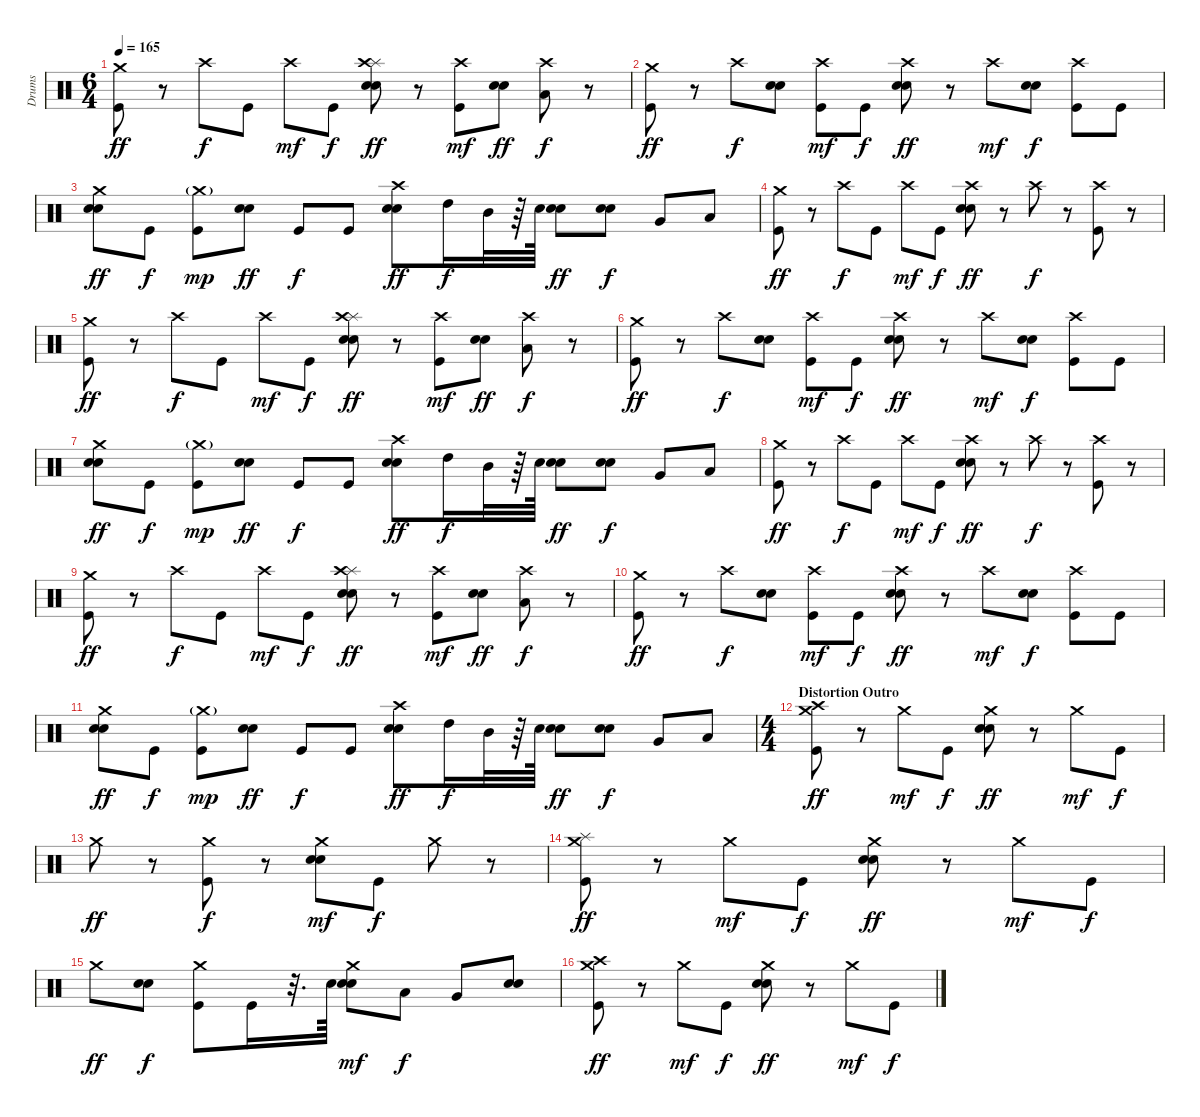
\track ("Drums" "Drums") {instrument percussion}
\staff {score}
\articulation defaults
\ts (6 4)
\tempo 165
\clef neutral
\ks c
("Kick (hit)" "Crash medium (hit)").8{dy ff} r.8 "Crash high (hit)".8{dy f} "Kick (hit)".8 "Crash high (hit)".8{dy mf} "Kick (hit)".8{dy f} ("Electric Snare (hit)" "Electric Snare (hit)" "Splash (hit)" "Crash high (hit)").8{dy ff} r.8 ("Kick (hit)" "Crash high (hit)").8{dy mf} ("Electric Snare (hit)" "Electric Snare (hit)").8{dy ff} ("Low Floor Tom (hit)" "Crash high (hit)").8{dy f} r.8 |
("Kick (hit)" "Crash medium (hit)").8{dy ff} r.8 "Crash high (hit)".8{dy f} ("Electric Snare (hit)" "Electric Snare (hit)").8 ("Kick (hit)" "Crash high (hit)").8{dy mf} "Kick (hit)".8{dy f} ("Electric Snare (hit)" "Electric Snare (hit)" "Crash high (hit)").8{dy ff} r.8 "Crash high (hit)".8{dy mf} ("Electric Snare (hit)" "Electric Snare (hit)").8{dy f} ("Kick (hit)" "Crash high (hit)").8 "Kick (hit)".8 |
("Electric Snare (hit)" "Electric Snare (hit)" "Crash medium (hit)").8{dy ff} "Kick (hit)".8{dy f} ("Kick (hit)" "Crash medium (hit)"{g}).8{dy mp} ("Electric Snare (hit)" "Electric Snare (hit)").8{dy ff} "Kick (hit)".8{dy f} "Kick (hit)".8 ("Electric Snare (hit)" "Electric Snare (hit)" "Crash high (hit)").8{dy ff} "High Tom (hit)".16{dy f} "Mid Tom (hit)".32 r.64 "Electric Snare (hit)".64 ("Electric Snare (hit)" "Electric Snare (hit)").8{dy ff} ("Electric Snare (hit)" "Electric Snare (hit)").8{dy f} "Very Low Tom (hit)".8 "Low Floor Tom (hit)".8 |
("Kick (hit)" "Crash medium (hit)").8{dy ff} r.8 "Crash high (hit)".8{dy f} "Kick (hit)".8 "Crash high (hit)".8{dy mf} "Kick (hit)".8{dy f} ("Electric Snare (hit)" "Electric Snare (hit)" "Crash high (hit)").8{dy ff} r.8 "Crash high (hit)".8{dy f} r.8 ("Kick (hit)" "Crash high (hit)").8 r.8 |
("Kick (hit)" "Crash medium (hit)").8{dy ff} r.8 "Crash high (hit)".8{dy f} "Kick (hit)".8 "Crash high (hit)".8{dy mf} "Kick (hit)".8{dy f} ("Electric Snare (hit)" "Electric Snare (hit)" "Splash (hit)" "Crash high (hit)").8{dy ff} r.8 ("Kick (hit)" "Crash high (hit)").8{dy mf} ("Electric Snare (hit)" "Electric Snare (hit)").8{dy ff} ("Low Floor Tom (hit)" "Crash high (hit)").8{dy f} r.8 |
("Kick (hit)" "Crash medium (hit)").8{dy ff} r.8 "Crash high (hit)".8{dy f} ("Electric Snare (hit)" "Electric Snare (hit)").8 ("Kick (hit)" "Crash high (hit)").8{dy mf} "Kick (hit)".8{dy f} ("Electric Snare (hit)" "Electric Snare (hit)" "Crash high (hit)").8{dy ff} r.8 "Crash high (hit)".8{dy mf} ("Electric Snare (hit)" "Electric Snare (hit)").8{dy f} ("Kick (hit)" "Crash high (hit)").8 "Kick (hit)".8 |
("Electric Snare (hit)" "Electric Snare (hit)" "Crash medium (hit)").8{dy ff} "Kick (hit)".8{dy f} ("Kick (hit)" "Crash medium (hit)"{g}).8{dy mp} ("Electric Snare (hit)" "Electric Snare (hit)").8{dy ff} "Kick (hit)".8{dy f} "Kick (hit)".8 ("Electric Snare (hit)" "Electric Snare (hit)" "Crash high (hit)").8{dy ff} "High Tom (hit)".16{dy f} "Mid Tom (hit)".32 r.64 "Electric Snare (hit)".64 ("Electric Snare (hit)" "Electric Snare (hit)").8{dy ff} ("Electric Snare (hit)" "Electric Snare (hit)").8{dy f} "Very Low Tom (hit)".8 "Low Floor Tom (hit)".8 |
("Kick (hit)" "Crash medium (hit)").8{dy ff} r.8 "Crash high (hit)".8{dy f} "Kick (hit)".8 "Crash high (hit)".8{dy mf} "Kick (hit)".8{dy f} ("Electric Snare (hit)" "Electric Snare (hit)" "Crash high (hit)").8{dy ff} r.8 "Crash high (hit)".8{dy f} r.8 ("Kick (hit)" "Crash high (hit)").8 r.8 |
("Kick (hit)" "Crash medium (hit)").8{dy ff} r.8 "Crash high (hit)".8{dy f} "Kick (hit)".8 "Crash high (hit)".8{dy mf} "Kick (hit)".8{dy f} ("Electric Snare (hit)" "Electric Snare (hit)" "Splash (hit)" "Crash high (hit)").8{dy ff} r.8 ("Kick (hit)" "Crash high (hit)").8{dy mf} ("Electric Snare (hit)" "Electric Snare (hit)").8{dy ff} ("Low Floor Tom (hit)" "Crash high (hit)").8{dy f} r.8 |
("Kick (hit)" "Crash medium (hit)").8{dy ff} r.8 "Crash high (hit)".8{dy f} ("Electric Snare (hit)" "Electric Snare (hit)").8 ("Kick (hit)" "Crash high (hit)").8{dy mf} "Kick (hit)".8{dy f} ("Electric Snare (hit)" "Electric Snare (hit)" "Crash high (hit)").8{dy ff} r.8 "Crash high (hit)".8{dy mf} ("Electric Snare (hit)" "Electric Snare (hit)").8{dy f} ("Kick (hit)" "Crash high (hit)").8 "Kick (hit)".8 |
("Electric Snare (hit)" "Electric Snare (hit)" "Crash medium (hit)").8{dy ff} "Kick (hit)".8{dy f} ("Kick (hit)" "Crash medium (hit)"{g}).8{dy mp} ("Electric Snare (hit)" "Electric Snare (hit)").8{dy ff} "Kick (hit)".8{dy f} "Kick (hit)".8 ("Electric Snare (hit)" "Electric Snare (hit)" "Crash high (hit)").8{dy ff} "High Tom (hit)".16{dy f} "Mid Tom (hit)".32 r.64 "Electric Snare (hit)".64 ("Electric Snare (hit)" "Electric Snare (hit)").8{dy ff} ("Electric Snare (hit)" "Electric Snare (hit)").8{dy f} "Very Low Tom (hit)".8 "Low Floor Tom (hit)".8 |
\ts (4 4)
\section ("" "Distortion Outro ")
("Kick (hit)" "Crash medium (hit)" "Crash high (hit)").8{dy ff} r.8 "Crash medium (hit)".8{dy mf} "Kick (hit)".8{dy f} ("Electric Snare (hit)" "Electric Snare (hit)" "Crash medium (hit)").8{dy ff} r.8 "Crash medium (hit)".8{dy mf} "Kick (hit)".8{dy f} |
"Crash medium (hit)".8{dy ff} r.8 ("Kick (hit)" "Crash medium (hit)").8{dy f} r.8 ("Electric Snare (hit)" "Electric Snare (hit)" "Crash medium (hit)").8{dy mf} "Kick (hit)".8{dy f} "Crash medium (hit)".8 r.8 |
("Kick (hit)" "Crash medium (hit)" "Splash (hit)").8{dy ff} r.8 "Crash medium (hit)".8{dy mf} "Kick (hit)".8{dy f} ("Electric Snare (hit)" "Electric Snare (hit)" "Crash medium (hit)").8{dy ff} r.8 "Crash medium (hit)".8{dy mf} "Kick (hit)".8{dy f} |
"Crash medium (hit)".8{dy ff} ("Electric Snare (hit)" "Electric Snare (hit)").8{dy f} ("Kick (hit)" "Crash medium (hit)").8 "Kick (hit)".16 r.32{d} "Electric Snare (hit)".64 ("Electric Snare (hit)" "Electric Snare (hit)" "Crash medium (hit)").8{dy mf} "Low Tom (hit)".8{dy f} "Very Low Tom (hit)".8 ("Electric Snare (hit)" "Electric Snare (hit)").8 |
("Kick (hit)" "Crash medium (hit)" "Crash high (hit)").8{dy ff} r.8 "Crash medium (hit)".8{dy mf} "Kick (hit)".8{dy f} ("Electric Snare (hit)" "Electric Snare (hit)" "Crash medium (hit)").8{dy ff} r.8 "Crash medium (hit)".8{dy mf} "Kick (hit)".8{dy f}
